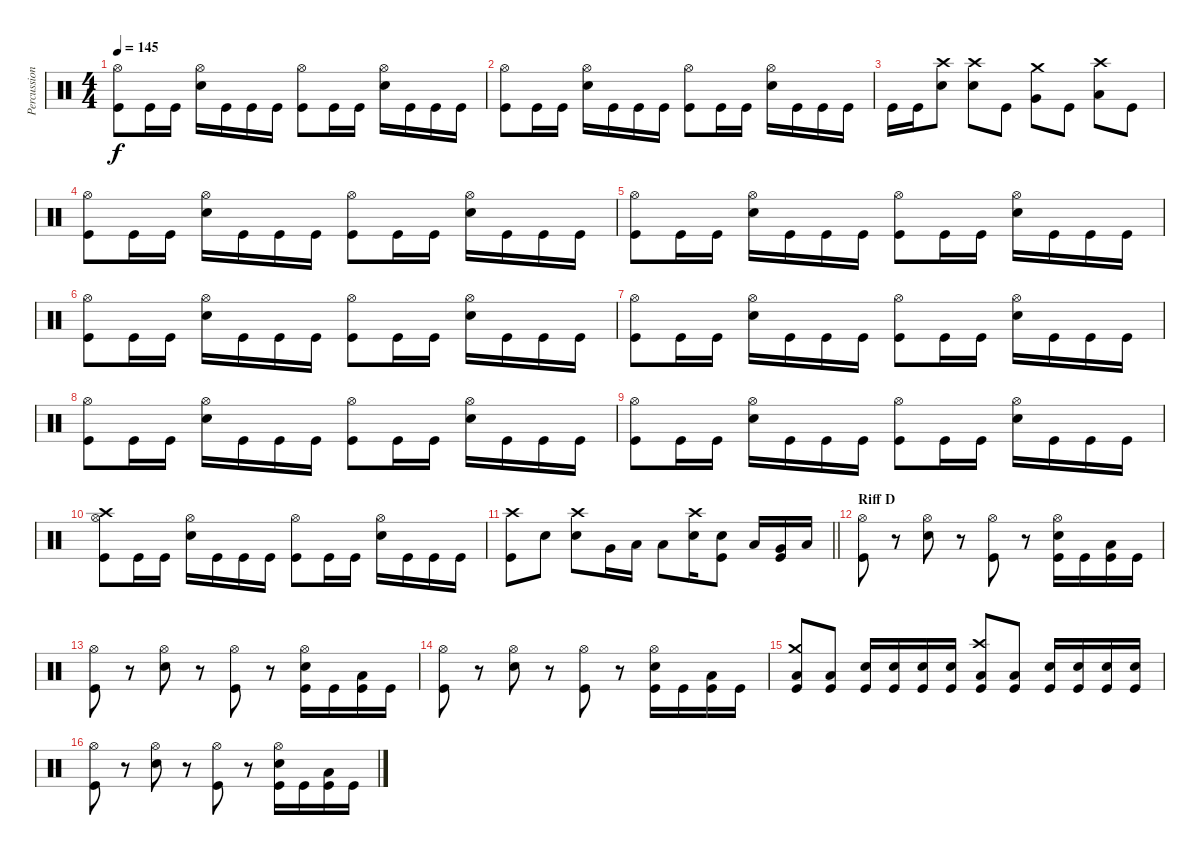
\track ("Percussion" "Percussion") {instrument percussion}
\staff {score}
\articulation defaults
\ts (4 4)
\tempo 145
\clef neutral
\ks c
("Hi-Hat (open)" "Kick (hit)").8{dy f} "Kick (hit)".16 "Kick (hit)".16 ("Hi-Hat (open)" "Snare (hit) 2").16 "Kick (hit)".16 "Kick (hit)".16 "Kick (hit)".16 ("Hi-Hat (open)" "Kick (hit)").8 "Kick (hit)".16 "Kick (hit)".16 ("Hi-Hat (open)" "Snare (hit) 2").16 "Kick (hit)".16 "Kick (hit)".16 "Kick (hit)".16 |
("Hi-Hat (open)" "Kick (hit)").8 "Kick (hit)".16 "Kick (hit)".16 ("Hi-Hat (open)" "Snare (hit) 2").16 "Kick (hit)".16 "Kick (hit)".16 "Kick (hit)".16 ("Hi-Hat (open)" "Kick (hit)").8 "Kick (hit)".16 "Kick (hit)".16 ("Hi-Hat (open)" "Snare (hit) 2").16 "Kick (hit)".16 "Kick (hit)".16 "Kick (hit)".16 |
"Kick (hit)".16 "Kick (hit)".16 ("Crash high (hit)" "Snare (hit) 2").8 ("Crash high (hit)" "Snare (hit) 2").8 "Kick (hit)".8 ("Crash medium (hit)" "Very Low Tom (hit)").8 "Kick (hit)".8 ("Crash high (hit)" "Low Floor Tom (hit)").8 "Kick (hit)".8 |
("Hi-Hat (open)" "Kick (hit)").8 "Kick (hit)".16 "Kick (hit)".16 ("Hi-Hat (open)" "Snare (hit) 2").16 "Kick (hit)".16 "Kick (hit)".16 "Kick (hit)".16 ("Hi-Hat (open)" "Kick (hit)").8 "Kick (hit)".16 "Kick (hit)".16 ("Hi-Hat (open)" "Snare (hit) 2").16 "Kick (hit)".16 "Kick (hit)".16 "Kick (hit)".16 |
("Hi-Hat (open)" "Kick (hit)").8 "Kick (hit)".16 "Kick (hit)".16 ("Hi-Hat (open)" "Snare (hit) 2").16 "Kick (hit)".16 "Kick (hit)".16 "Kick (hit)".16 ("Hi-Hat (open)" "Kick (hit)").8 "Kick (hit)".16 "Kick (hit)".16 ("Hi-Hat (open)" "Snare (hit) 2").16 "Kick (hit)".16 "Kick (hit)".16 "Kick (hit)".16 |
("Hi-Hat (open)" "Kick (hit)").8 "Kick (hit)".16 "Kick (hit)".16 ("Hi-Hat (open)" "Snare (hit) 2").16 "Kick (hit)".16 "Kick (hit)".16 "Kick (hit)".16 ("Hi-Hat (open)" "Kick (hit)").8 "Kick (hit)".16 "Kick (hit)".16 ("Hi-Hat (open)" "Snare (hit) 2").16 "Kick (hit)".16 "Kick (hit)".16 "Kick (hit)".16 |
("Hi-Hat (open)" "Kick (hit)").8 "Kick (hit)".16 "Kick (hit)".16 ("Hi-Hat (open)" "Snare (hit) 2").16 "Kick (hit)".16 "Kick (hit)".16 "Kick (hit)".16 ("Hi-Hat (open)" "Kick (hit)").8 "Kick (hit)".16 "Kick (hit)".16 ("Hi-Hat (open)" "Snare (hit) 2").16 "Kick (hit)".16 "Kick (hit)".16 "Kick (hit)".16 |
("Hi-Hat (open)" "Kick (hit)").8 "Kick (hit)".16 "Kick (hit)".16 ("Hi-Hat (open)" "Snare (hit) 2").16 "Kick (hit)".16 "Kick (hit)".16 "Kick (hit)".16 ("Hi-Hat (open)" "Kick (hit)").8 "Kick (hit)".16 "Kick (hit)".16 ("Hi-Hat (open)" "Snare (hit) 2").16 "Kick (hit)".16 "Kick (hit)".16 "Kick (hit)".16 |
("Hi-Hat (open)" "Kick (hit)").8 "Kick (hit)".16 "Kick (hit)".16 ("Hi-Hat (open)" "Snare (hit) 2").16 "Kick (hit)".16 "Kick (hit)".16 "Kick (hit)".16 ("Hi-Hat (open)" "Kick (hit)").8 "Kick (hit)".16 "Kick (hit)".16 ("Hi-Hat (open)" "Snare (hit) 2").16 "Kick (hit)".16 "Kick (hit)".16 "Kick (hit)".16 |
("Hi-Hat (open)" "Crash high (hit)" "Kick (hit)").8 "Kick (hit)".16 "Kick (hit)".16 ("Hi-Hat (open)" "Snare (hit) 2").16 "Kick (hit)".16 "Kick (hit)".16 "Kick (hit)".16 ("Hi-Hat (open)" "Kick (hit)").8 "Kick (hit)".16 "Kick (hit)".16 ("Hi-Hat (open)" "Snare (hit) 2").16 "Kick (hit)".16 "Kick (hit)".16 "Kick (hit)".16 |
\barLineRight lightlight
("Crash high (hit)" "Kick (hit)").8 "Snare (hit) 2".8 ("Crash high (hit)" "Snare (hit) 2").8 "Very Low Tom (hit)".16 "Low Tom (hit)".16 "Low Tom (hit)".8 ("Crash high (hit)" "Snare (hit) 2").16 ("Snare (hit) 2" "Kick (hit)").8 "Low Floor Tom (hit)".16 ("Very Low Tom (hit)" "Kick (hit)").16 "Low Tom (hit)".16 |
\section ("" "Riff D")
("Hi-Hat (open)" "Kick (hit)").8 r.8 ("Hi-Hat (open)" "Snare (hit) 2").8 r.8 ("Hi-Hat (open)" "Kick (hit)").8 r.8 ("Hi-Hat (open)" "Snare (hit) 2" "Kick (hit)").16 "Kick (hit)".16 ("Low Floor Tom (hit)" "Kick (hit)").16 "Kick (hit)".16 |
("Hi-Hat (open)" "Kick (hit)").8 r.8 ("Hi-Hat (open)" "Snare (hit) 2").8 r.8 ("Hi-Hat (open)" "Kick (hit)").8 r.8 ("Hi-Hat (open)" "Snare (hit) 2" "Kick (hit)").16 "Kick (hit)".16 ("Low Floor Tom (hit)" "Kick (hit)").16 "Kick (hit)".16 |
("Hi-Hat (open)" "Kick (hit)").8 r.8 ("Hi-Hat (open)" "Snare (hit) 2").8 r.8 ("Hi-Hat (open)" "Kick (hit)").8 r.8 ("Hi-Hat (open)" "Snare (hit) 2" "Kick (hit)").16 "Kick (hit)".16 ("Low Floor Tom (hit)" "Kick (hit)").16 "Kick (hit)".16 |
("Crash medium (hit)" "Low Floor Tom (hit)" "Kick (hit)").8 ("Low Floor Tom (hit)" "Kick (hit)").8 ("Snare (hit) 2" "Kick (hit)").16 ("Snare (hit) 2" "Kick (hit)").16 ("Snare (hit) 2" "Kick (hit)").16 ("Snare (hit) 2" "Kick (hit)").16 ("Crash high (hit)" "Low Floor Tom (hit)" "Kick (hit)").8 ("Low Floor Tom (hit)" "Kick (hit)").8 ("Snare (hit) 2" "Kick (hit)").16 ("Snare (hit) 2" "Kick (hit)").16 ("Snare (hit) 2" "Kick (hit)").16 ("Snare (hit) 2" "Kick (hit)").16 |
("Hi-Hat (open)" "Kick (hit)").8 r.8 ("Hi-Hat (open)" "Snare (hit) 2").8 r.8 ("Hi-Hat (open)" "Kick (hit)").8 r.8 ("Hi-Hat (open)" "Snare (hit) 2" "Kick (hit)").16 "Kick (hit)".16 ("Low Floor Tom (hit)" "Kick (hit)").16 "Kick (hit)".16
